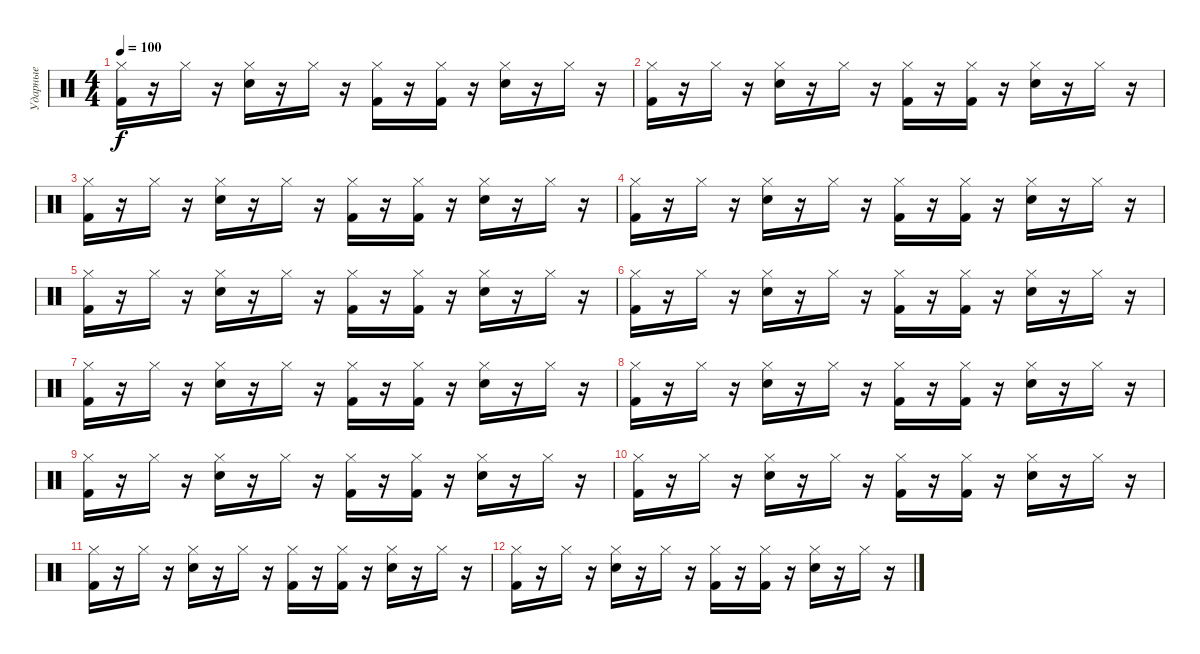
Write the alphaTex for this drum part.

\track ("Ударные" "Ударные") {instrument percussion}
\staff {score}
\articulation defaults
\ts (4 4)
\tempo 100
\clef neutral
\ks c
("Kick (hit) 2" "Hi-Hat (closed)").16{dy f} r.16 "Hi-Hat (closed)".16 r.16 ("Snare (hit) 2" "Hi-Hat (closed)").16 r.16 "Hi-Hat (closed)".16 r.16 ("Kick (hit) 2" "Hi-Hat (closed)").16 r.16 ("Kick (hit) 2" "Hi-Hat (closed)").16 r.16 ("Snare (hit) 2" "Hi-Hat (closed)").16 r.16 "Hi-Hat (closed)".16 r.16 |
("Kick (hit) 2" "Hi-Hat (closed)").16 r.16 "Hi-Hat (closed)".16 r.16 ("Snare (hit) 2" "Hi-Hat (closed)").16 r.16 "Hi-Hat (closed)".16 r.16 ("Kick (hit) 2" "Hi-Hat (closed)").16 r.16 ("Kick (hit) 2" "Hi-Hat (closed)").16 r.16 ("Snare (hit) 2" "Hi-Hat (closed)").16 r.16 "Hi-Hat (closed)".16 r.16 |
("Kick (hit) 2" "Hi-Hat (closed)").16 r.16 "Hi-Hat (closed)".16 r.16 ("Snare (hit) 2" "Hi-Hat (closed)").16 r.16 "Hi-Hat (closed)".16 r.16 ("Kick (hit) 2" "Hi-Hat (closed)").16 r.16 ("Kick (hit) 2" "Hi-Hat (closed)").16 r.16 ("Snare (hit) 2" "Hi-Hat (closed)").16 r.16 "Hi-Hat (closed)".16 r.16 |
("Kick (hit) 2" "Hi-Hat (closed)").16 r.16 "Hi-Hat (closed)".16 r.16 ("Snare (hit) 2" "Hi-Hat (closed)").16 r.16 "Hi-Hat (closed)".16 r.16 ("Kick (hit) 2" "Hi-Hat (closed)").16 r.16 ("Kick (hit) 2" "Hi-Hat (closed)").16 r.16 ("Snare (hit) 2" "Hi-Hat (closed)").16 r.16 "Hi-Hat (closed)".16 r.16 |
("Kick (hit) 2" "Hi-Hat (closed)").16 r.16 "Hi-Hat (closed)".16 r.16 ("Snare (hit) 2" "Hi-Hat (closed)").16 r.16 "Hi-Hat (closed)".16 r.16 ("Kick (hit) 2" "Hi-Hat (closed)").16 r.16 ("Kick (hit) 2" "Hi-Hat (closed)").16 r.16 ("Snare (hit) 2" "Hi-Hat (closed)").16 r.16 "Hi-Hat (closed)".16 r.16 |
("Kick (hit) 2" "Hi-Hat (closed)").16 r.16 "Hi-Hat (closed)".16 r.16 ("Snare (hit) 2" "Hi-Hat (closed)").16 r.16 "Hi-Hat (closed)".16 r.16 ("Kick (hit) 2" "Hi-Hat (closed)").16 r.16 ("Kick (hit) 2" "Hi-Hat (closed)").16 r.16 ("Snare (hit) 2" "Hi-Hat (closed)").16 r.16 "Hi-Hat (closed)".16 r.16 |
("Kick (hit) 2" "Hi-Hat (closed)").16 r.16 "Hi-Hat (closed)".16 r.16 ("Snare (hit) 2" "Hi-Hat (closed)").16 r.16 "Hi-Hat (closed)".16 r.16 ("Kick (hit) 2" "Hi-Hat (closed)").16 r.16 ("Kick (hit) 2" "Hi-Hat (closed)").16 r.16 ("Snare (hit) 2" "Hi-Hat (closed)").16 r.16 "Hi-Hat (closed)".16 r.16 |
("Kick (hit) 2" "Hi-Hat (closed)").16 r.16 "Hi-Hat (closed)".16 r.16 ("Snare (hit) 2" "Hi-Hat (closed)").16 r.16 "Hi-Hat (closed)".16 r.16 ("Kick (hit) 2" "Hi-Hat (closed)").16 r.16 ("Kick (hit) 2" "Hi-Hat (closed)").16 r.16 ("Snare (hit) 2" "Hi-Hat (closed)").16 r.16 "Hi-Hat (closed)".16 r.16 |
("Kick (hit) 2" "Hi-Hat (closed)").16 r.16 "Hi-Hat (closed)".16 r.16 ("Snare (hit) 2" "Hi-Hat (closed)").16 r.16 "Hi-Hat (closed)".16 r.16 ("Kick (hit) 2" "Hi-Hat (closed)").16 r.16 ("Kick (hit) 2" "Hi-Hat (closed)").16 r.16 ("Snare (hit) 2" "Hi-Hat (closed)").16 r.16 "Hi-Hat (closed)".16 r.16 |
("Kick (hit) 2" "Hi-Hat (closed)").16 r.16 "Hi-Hat (closed)".16 r.16 ("Snare (hit) 2" "Hi-Hat (closed)").16 r.16 "Hi-Hat (closed)".16 r.16 ("Kick (hit) 2" "Hi-Hat (closed)").16 r.16 ("Kick (hit) 2" "Hi-Hat (closed)").16 r.16 ("Snare (hit) 2" "Hi-Hat (closed)").16 r.16 "Hi-Hat (closed)".16 r.16 |
("Kick (hit) 2" "Hi-Hat (closed)").16 r.16 "Hi-Hat (closed)".16 r.16 ("Snare (hit) 2" "Hi-Hat (closed)").16 r.16 "Hi-Hat (closed)".16 r.16 ("Kick (hit) 2" "Hi-Hat (closed)").16 r.16 ("Kick (hit) 2" "Hi-Hat (closed)").16 r.16 ("Snare (hit) 2" "Hi-Hat (closed)").16 r.16 "Hi-Hat (closed)".16 r.16 |
("Kick (hit) 2" "Hi-Hat (closed)").16 r.16 "Hi-Hat (closed)".16 r.16 ("Snare (hit) 2" "Hi-Hat (closed)").16 r.16 "Hi-Hat (closed)".16 r.16 ("Kick (hit) 2" "Hi-Hat (closed)").16 r.16 ("Kick (hit) 2" "Hi-Hat (closed)").16 r.16 ("Snare (hit) 2" "Hi-Hat (closed)").16 r.16 "Hi-Hat (closed)".16 r.16
